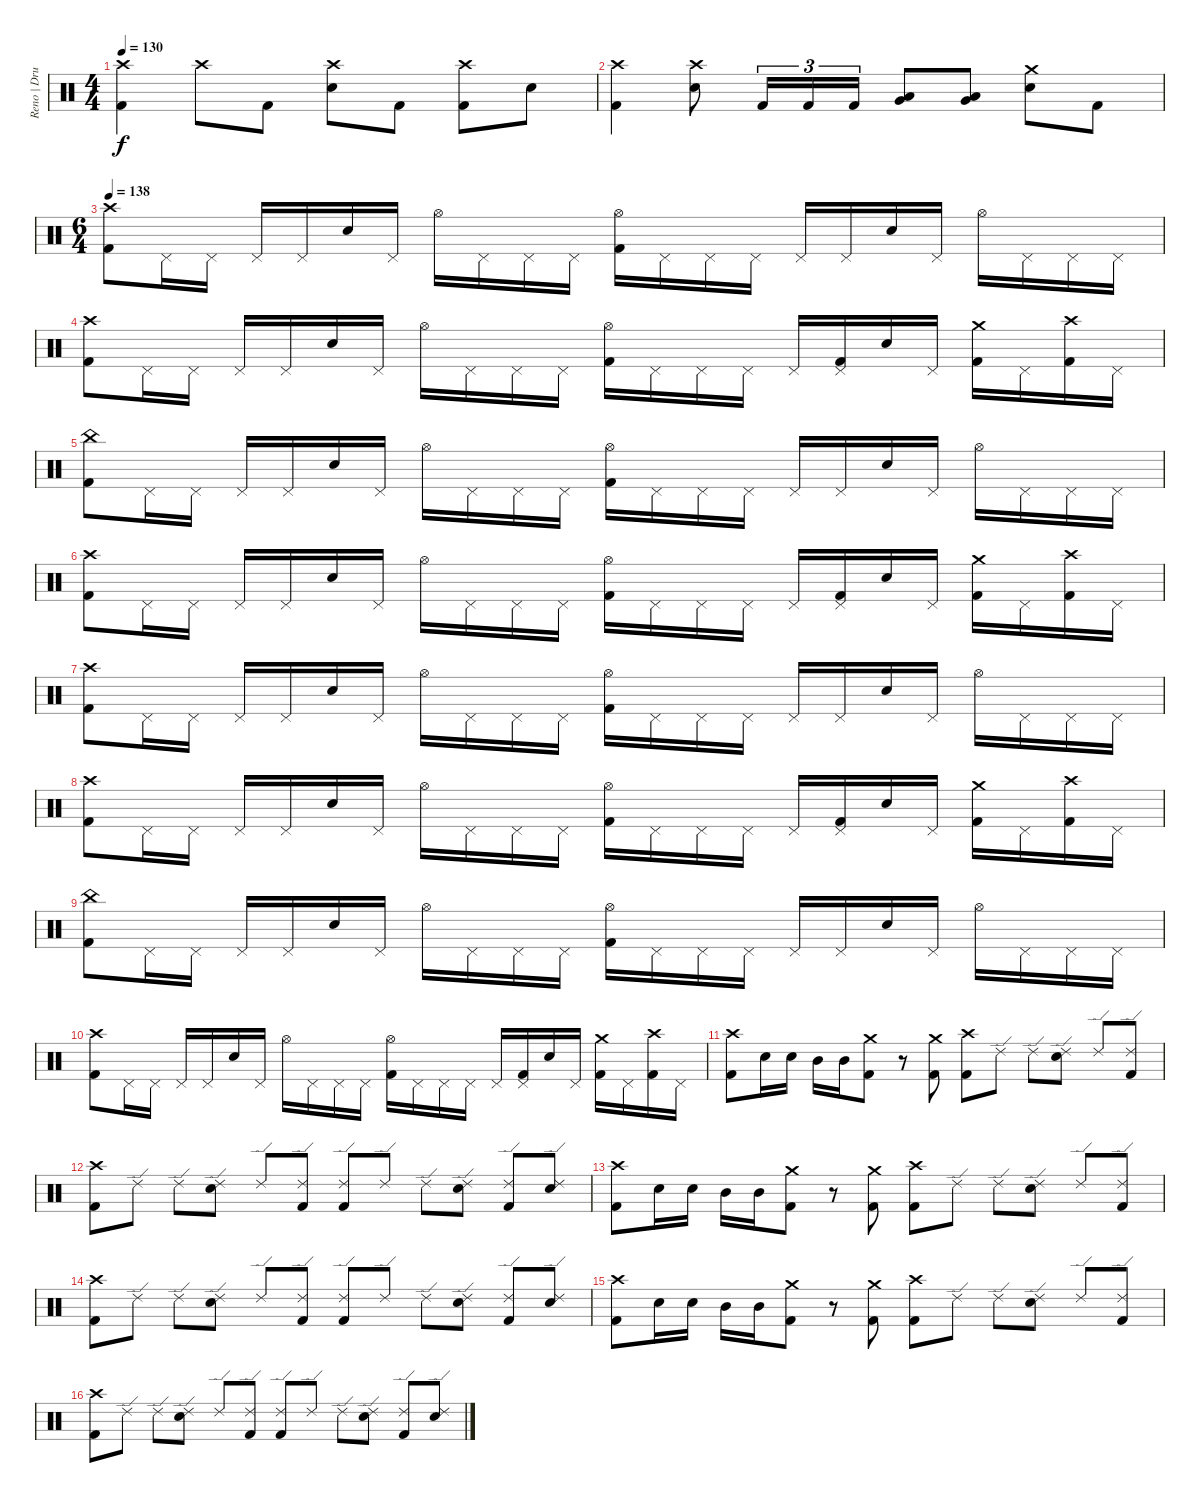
\track ("Reno | Drums" "Reno | Dru") {instrument percussion}
\staff {score}
\articulation defaults
\ts (4 4)
\tempo 130
\clef neutral
\ks c
("Crash high (hit)" "Kick (hit) 2").4{dy f} "Crash high (hit)".8 "Kick (hit) 2".8 ("Crash high (hit)" "Electric Snare (hit)").8 "Kick (hit) 2".8 ("Crash high (hit)" "Kick (hit) 2").8 "Electric Snare (hit)".8 |
("Crash high (hit)" "Kick (hit) 2").4 ("Crash high (hit)" "Electric Snare (hit)").8 "Kick (hit) 2".16{tu (3 2)} "Kick (hit) 2".16{tu (3 2)} "Kick (hit) 2".16{tu (3 2)} ("Low Tom (hit)" "Very Low Tom (hit)").8 ("Low Tom (hit)" "Very Low Tom (hit)").8 ("Crash medium (hit)" "Electric Snare (hit)").8 "Kick (hit) 2".8 |
\ts (6 4)
\tempo 138
("Crash high (hit)" "Kick (hit) 2").8 "Pedal Hi-Hat (hit)".16 "Pedal Hi-Hat (hit)".16 "Pedal Hi-Hat (hit)".16 "Pedal Hi-Hat (hit)".16 "Electric Snare (hit)".16 "Pedal Hi-Hat (hit)".16 "Hi-Hat (open)".16 "Pedal Hi-Hat (hit)".16 "Pedal Hi-Hat (hit)".16 "Pedal Hi-Hat (hit)".16 ("Hi-Hat (open)" "Kick (hit) 2").16 "Pedal Hi-Hat (hit)".16 "Pedal Hi-Hat (hit)".16 "Pedal Hi-Hat (hit)".16 "Pedal Hi-Hat (hit)".16 "Pedal Hi-Hat (hit)".16 "Electric Snare (hit)".16 "Pedal Hi-Hat (hit)".16 "Hi-Hat (open)".16 "Pedal Hi-Hat (hit)".16 "Pedal Hi-Hat (hit)".16 "Pedal Hi-Hat (hit)".16 |
("Crash high (hit)" "Kick (hit) 2").8 "Pedal Hi-Hat (hit)".16 "Pedal Hi-Hat (hit)".16 "Pedal Hi-Hat (hit)".16 "Pedal Hi-Hat (hit)".16 "Electric Snare (hit)".16 "Pedal Hi-Hat (hit)".16 "Hi-Hat (open)".16 "Pedal Hi-Hat (hit)".16 "Pedal Hi-Hat (hit)".16 "Pedal Hi-Hat (hit)".16 ("Hi-Hat (open)" "Kick (hit) 2").16 "Pedal Hi-Hat (hit)".16 "Pedal Hi-Hat (hit)".16 "Pedal Hi-Hat (hit)".16 "Pedal Hi-Hat (hit)".16 ("Pedal Hi-Hat (hit)" "Kick (hit) 2").16 "Electric Snare (hit)".16 "Pedal Hi-Hat (hit)".16 ("Crash medium (hit)" "Kick (hit) 2").16 "Pedal Hi-Hat (hit)".16 ("Crash high (hit)" "Kick (hit) 2").16 "Pedal Hi-Hat (hit)".16 |
("China (hit)" "Kick (hit) 2").8 "Pedal Hi-Hat (hit)".16 "Pedal Hi-Hat (hit)".16 "Pedal Hi-Hat (hit)".16 "Pedal Hi-Hat (hit)".16 "Electric Snare (hit)".16 "Pedal Hi-Hat (hit)".16 "Hi-Hat (open)".16 "Pedal Hi-Hat (hit)".16 "Pedal Hi-Hat (hit)".16 "Pedal Hi-Hat (hit)".16 ("Hi-Hat (open)" "Kick (hit) 2").16 "Pedal Hi-Hat (hit)".16 "Pedal Hi-Hat (hit)".16 "Pedal Hi-Hat (hit)".16 "Pedal Hi-Hat (hit)".16 "Pedal Hi-Hat (hit)".16 "Electric Snare (hit)".16 "Pedal Hi-Hat (hit)".16 "Hi-Hat (open)".16 "Pedal Hi-Hat (hit)".16 "Pedal Hi-Hat (hit)".16 "Pedal Hi-Hat (hit)".16 |
("Crash high (hit)" "Kick (hit) 2").8 "Pedal Hi-Hat (hit)".16 "Pedal Hi-Hat (hit)".16 "Pedal Hi-Hat (hit)".16 "Pedal Hi-Hat (hit)".16 "Electric Snare (hit)".16 "Pedal Hi-Hat (hit)".16 "Hi-Hat (open)".16 "Pedal Hi-Hat (hit)".16 "Pedal Hi-Hat (hit)".16 "Pedal Hi-Hat (hit)".16 ("Hi-Hat (open)" "Kick (hit) 2").16 "Pedal Hi-Hat (hit)".16 "Pedal Hi-Hat (hit)".16 "Pedal Hi-Hat (hit)".16 "Pedal Hi-Hat (hit)".16 ("Pedal Hi-Hat (hit)" "Kick (hit) 2").16 "Electric Snare (hit)".16 "Pedal Hi-Hat (hit)".16 ("Crash medium (hit)" "Kick (hit) 2").16 "Pedal Hi-Hat (hit)".16 ("Crash high (hit)" "Kick (hit) 2").16 "Pedal Hi-Hat (hit)".16 |
("Crash high (hit)" "Kick (hit) 2").8 "Pedal Hi-Hat (hit)".16 "Pedal Hi-Hat (hit)".16 "Pedal Hi-Hat (hit)".16 "Pedal Hi-Hat (hit)".16 "Electric Snare (hit)".16 "Pedal Hi-Hat (hit)".16 "Hi-Hat (open)".16 "Pedal Hi-Hat (hit)".16 "Pedal Hi-Hat (hit)".16 "Pedal Hi-Hat (hit)".16 ("Hi-Hat (open)" "Kick (hit) 2").16 "Pedal Hi-Hat (hit)".16 "Pedal Hi-Hat (hit)".16 "Pedal Hi-Hat (hit)".16 "Pedal Hi-Hat (hit)".16 "Pedal Hi-Hat (hit)".16 "Electric Snare (hit)".16 "Pedal Hi-Hat (hit)".16 "Hi-Hat (open)".16 "Pedal Hi-Hat (hit)".16 "Pedal Hi-Hat (hit)".16 "Pedal Hi-Hat (hit)".16 |
("Crash high (hit)" "Kick (hit) 2").8 "Pedal Hi-Hat (hit)".16 "Pedal Hi-Hat (hit)".16 "Pedal Hi-Hat (hit)".16 "Pedal Hi-Hat (hit)".16 "Electric Snare (hit)".16 "Pedal Hi-Hat (hit)".16 "Hi-Hat (open)".16 "Pedal Hi-Hat (hit)".16 "Pedal Hi-Hat (hit)".16 "Pedal Hi-Hat (hit)".16 ("Hi-Hat (open)" "Kick (hit) 2").16 "Pedal Hi-Hat (hit)".16 "Pedal Hi-Hat (hit)".16 "Pedal Hi-Hat (hit)".16 "Pedal Hi-Hat (hit)".16 ("Pedal Hi-Hat (hit)" "Kick (hit) 2").16 "Electric Snare (hit)".16 "Pedal Hi-Hat (hit)".16 ("Crash medium (hit)" "Kick (hit) 2").16 "Pedal Hi-Hat (hit)".16 ("Crash high (hit)" "Kick (hit) 2").16 "Pedal Hi-Hat (hit)".16 |
("China (hit)" "Kick (hit) 2").8 "Pedal Hi-Hat (hit)".16 "Pedal Hi-Hat (hit)".16 "Pedal Hi-Hat (hit)".16 "Pedal Hi-Hat (hit)".16 "Electric Snare (hit)".16 "Pedal Hi-Hat (hit)".16 "Hi-Hat (open)".16 "Pedal Hi-Hat (hit)".16 "Pedal Hi-Hat (hit)".16 "Pedal Hi-Hat (hit)".16 ("Hi-Hat (open)" "Kick (hit) 2").16 "Pedal Hi-Hat (hit)".16 "Pedal Hi-Hat (hit)".16 "Pedal Hi-Hat (hit)".16 "Pedal Hi-Hat (hit)".16 "Pedal Hi-Hat (hit)".16 "Electric Snare (hit)".16 "Pedal Hi-Hat (hit)".16 "Hi-Hat (open)".16 "Pedal Hi-Hat (hit)".16 "Pedal Hi-Hat (hit)".16 "Pedal Hi-Hat (hit)".16 |
("Crash high (hit)" "Kick (hit) 2").8 "Pedal Hi-Hat (hit)".16 "Pedal Hi-Hat (hit)".16 "Pedal Hi-Hat (hit)".16 "Pedal Hi-Hat (hit)".16 "Electric Snare (hit)".16 "Pedal Hi-Hat (hit)".16 "Hi-Hat (open)".16 "Pedal Hi-Hat (hit)".16 "Pedal Hi-Hat (hit)".16 "Pedal Hi-Hat (hit)".16 ("Hi-Hat (open)" "Kick (hit) 2").16 "Pedal Hi-Hat (hit)".16 "Pedal Hi-Hat (hit)".16 "Pedal Hi-Hat (hit)".16 "Pedal Hi-Hat (hit)".16 ("Pedal Hi-Hat (hit)" "Kick (hit) 2").16 "Electric Snare (hit)".16 "Pedal Hi-Hat (hit)".16 ("Crash medium (hit)" "Kick (hit) 2").16 "Pedal Hi-Hat (hit)".16 ("Crash high (hit)" "Kick (hit) 2").16 "Pedal Hi-Hat (hit)".16 |
("Crash high (hit)" "Kick (hit) 2").8 "Electric Snare (hit)".16 "Electric Snare (hit)".16 "Mid Tom (hit)".16 "Mid Tom (hit)".16 ("Crash medium (hit)" "Kick (hit) 2").8 r.8 ("Crash medium (hit)" "Kick (hit) 2").8 ("Crash high (hit)" "Kick (hit) 2").8 "Ride (edge) 2".8 "Ride (edge) 2".8 ("Ride (edge) 2" "Electric Snare (hit)").8 "Ride (edge) 2".8 ("Ride (edge) 2" "Kick (hit) 2").8 |
("Crash high (hit)" "Kick (hit) 2").8 "Ride (edge) 2".8 "Ride (edge) 2".8 ("Ride (edge) 2" "Electric Snare (hit)").8 "Ride (edge) 2".8 ("Ride (edge) 2" "Kick (hit) 2").8 ("Ride (edge) 2" "Kick (hit) 2").8 "Ride (edge) 2".8 "Ride (edge) 2".8 ("Ride (edge) 2" "Electric Snare (hit)").8 ("Ride (edge) 2" "Kick (hit) 2").8 ("Ride (edge) 2" "Electric Snare (hit)").8 |
("Crash high (hit)" "Kick (hit) 2").8 "Electric Snare (hit)".16 "Electric Snare (hit)".16 "Mid Tom (hit)".16 "Mid Tom (hit)".16 ("Crash medium (hit)" "Kick (hit) 2").8 r.8 ("Crash medium (hit)" "Kick (hit) 2").8 ("Crash high (hit)" "Kick (hit) 2").8 "Ride (edge) 2".8 "Ride (edge) 2".8 ("Ride (edge) 2" "Electric Snare (hit)").8 "Ride (edge) 2".8 ("Ride (edge) 2" "Kick (hit) 2").8 |
("Crash high (hit)" "Kick (hit) 2").8 "Ride (edge) 2".8 "Ride (edge) 2".8 ("Ride (edge) 2" "Electric Snare (hit)").8 "Ride (edge) 2".8 ("Ride (edge) 2" "Kick (hit) 2").8 ("Ride (edge) 2" "Kick (hit) 2").8 "Ride (edge) 2".8 "Ride (edge) 2".8 ("Ride (edge) 2" "Electric Snare (hit)").8 ("Ride (edge) 2" "Kick (hit) 2").8 ("Ride (edge) 2" "Electric Snare (hit)").8 |
("Crash high (hit)" "Kick (hit) 2").8 "Electric Snare (hit)".16 "Electric Snare (hit)".16 "Mid Tom (hit)".16 "Mid Tom (hit)".16 ("Crash medium (hit)" "Kick (hit) 2").8 r.8 ("Crash medium (hit)" "Kick (hit) 2").8 ("Crash high (hit)" "Kick (hit) 2").8 "Ride (edge) 2".8 "Ride (edge) 2".8 ("Ride (edge) 2" "Electric Snare (hit)").8 "Ride (edge) 2".8 ("Ride (edge) 2" "Kick (hit) 2").8 |
("Crash high (hit)" "Kick (hit) 2").8 "Ride (edge) 2".8 "Ride (edge) 2".8 ("Ride (edge) 2" "Electric Snare (hit)").8 "Ride (edge) 2".8 ("Ride (edge) 2" "Kick (hit) 2").8 ("Ride (edge) 2" "Kick (hit) 2").8 "Ride (edge) 2".8 "Ride (edge) 2".8 ("Ride (edge) 2" "Electric Snare (hit)").8 ("Ride (edge) 2" "Kick (hit) 2").8 ("Ride (edge) 2" "Electric Snare (hit)").8
